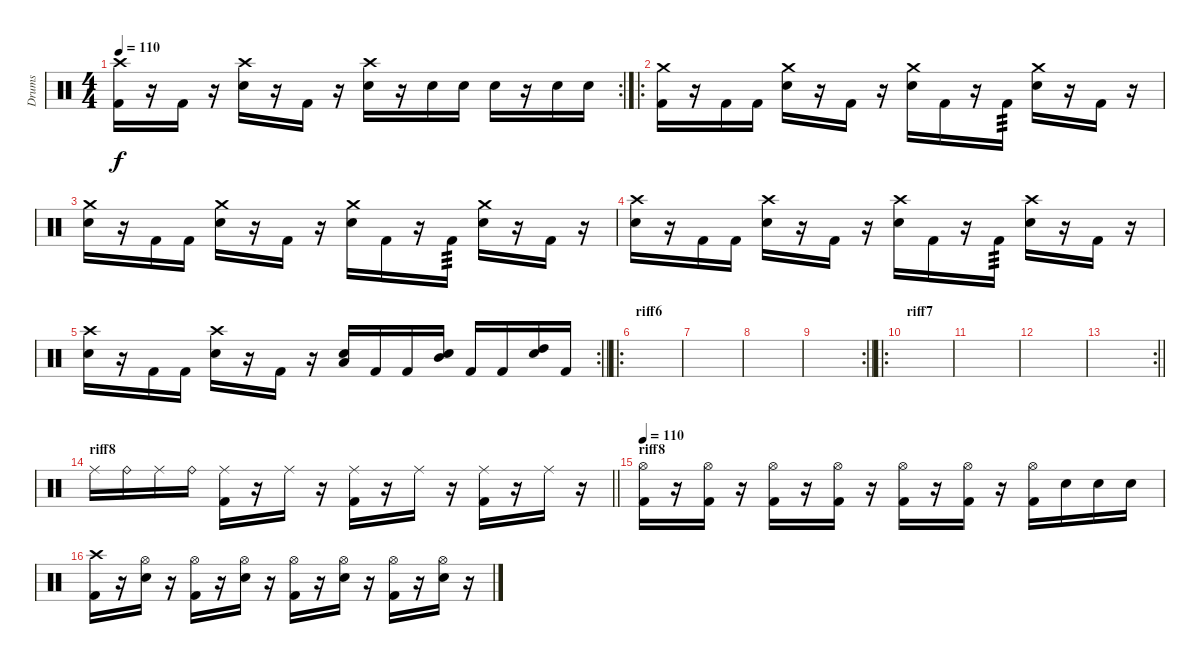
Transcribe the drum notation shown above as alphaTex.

\track ("Drums" "Drums") {instrument percussion}
\staff {score}
\articulation defaults
\rc 2
\ts (4 4)
\tempo 110
\clef neutral
\ks c
("Crash high (hit)" "Kick (hit) 2").16{dy f} r.16 "Kick (hit) 2".16 r.16 ("Crash high (hit)" "Electric Snare (hit)").16 r.16 "Kick (hit) 2".16 r.16 ("Crash high (hit)" "Electric Snare (hit)").16 r.16 "Electric Snare (hit)".16 "Electric Snare (hit)".16 "Electric Snare (hit)".16 r.16 "Electric Snare (hit)".16 "Electric Snare (hit)".16 |
\ro
("Crash medium (hit)" "Kick (hit) 2").16 r.16 "Kick (hit) 2".16 "Kick (hit) 2".16 ("Crash medium (hit)" "Electric Snare (hit)").16 r.16 "Kick (hit) 2".16 r.16 ("Crash medium (hit)" "Electric Snare (hit)").16 "Kick (hit) 2".16 r.16 "Kick (hit) 2".16{tp 3} ("Crash medium (hit)" "Electric Snare (hit)").16 r.16 "Kick (hit) 2".16 r.16 |
("Crash medium (hit)" "Electric Snare (hit)").16 r.16 "Kick (hit) 2".16 "Kick (hit) 2".16 ("Crash medium (hit)" "Electric Snare (hit)").16 r.16 "Kick (hit) 2".16 r.16 ("Crash medium (hit)" "Electric Snare (hit)").16 "Kick (hit) 2".16 r.16 "Kick (hit) 2".16{tp 3} ("Crash medium (hit)" "Electric Snare (hit)").16 r.16 "Kick (hit) 2".16 r.16 |
("Crash high (hit)" "Electric Snare (hit)").16 r.16 "Kick (hit) 2".16 "Kick (hit) 2".16 ("Crash high (hit)" "Electric Snare (hit)").16 r.16 "Kick (hit) 2".16 r.16 ("Crash high (hit)" "Electric Snare (hit)").16 "Kick (hit) 2".16 r.16 "Kick (hit) 2".16{tp 3} ("Crash high (hit)" "Electric Snare (hit)").16 r.16 "Kick (hit) 2".16 r.16 |
\rc 2
\barLineRight lightlight
("Crash high (hit)" "Electric Snare (hit)").16 r.16 "Kick (hit) 2".16 "Kick (hit) 2".16 ("Crash high (hit)" "Electric Snare (hit)").16 r.16 "Kick (hit) 2".16 r.16 ("Low Tom (hit)" "Electric Snare (hit)").16 "Kick (hit) 2".16 "Kick (hit) 2".16 ("Mid Tom (hit)" "Electric Snare (hit)").16 "Kick (hit) 2".16 "Kick (hit) 2".16 ("High Tom (hit)" "Electric Snare (hit)").16 "Kick (hit) 2".16 |
\ro
\section ("" "riff6")
|
|
|
\rc 2
\barLineRight lightlight
|
\ro
\section ("" "riff7")
|
|
|
\rc 2
\barLineRight lightlight
|
\section ("" "riff8")
\barLineRight lightlight "Ride (middle)".16 "Ride (bell)".16 "Ride (middle)".16 "Ride (bell)".16
("Ride (middle)" "Kick (hit) 2").16 r.16 "Ride (middle)".16 r.16 ("Ride (middle)" "Kick (hit) 2").16 r.16 "Ride (middle)".16 r.16 ("Ride (middle)" "Kick (hit) 2").16 r.16 "Ride (middle)".16 r.16 |
\section ("" "riff8")
\tempo 110
("Hi-Hat (open)" "Kick (hit) 2").16 r.16 ("Hi-Hat (open)" "Kick (hit) 2").16 r.16 ("Hi-Hat (open)" "Kick (hit) 2").16 r.16 ("Hi-Hat (open)" "Kick (hit) 2").16 r.16 ("Hi-Hat (open)" "Kick (hit) 2").16 r.16 ("Hi-Hat (open)" "Kick (hit) 2").16 r.16 ("Hi-Hat (open)" "Kick (hit) 2").16 "Electric Snare (hit)".16 "Electric Snare (hit)".16 "Electric Snare (hit)".16 |
("Crash high (hit)" "Kick (hit) 2").16 r.16 ("Hi-Hat (open)" "Electric Snare (hit)").16 r.16 ("Hi-Hat (open)" "Kick (hit) 2").16 r.16 ("Hi-Hat (open)" "Electric Snare (hit)").16 r.16 ("Hi-Hat (open)" "Kick (hit) 2").16 r.16 ("Hi-Hat (open)" "Electric Snare (hit)").16 r.16 ("Hi-Hat (open)" "Kick (hit) 2").16 r.16 ("Hi-Hat (open)" "Electric Snare (hit)").16 r.16
